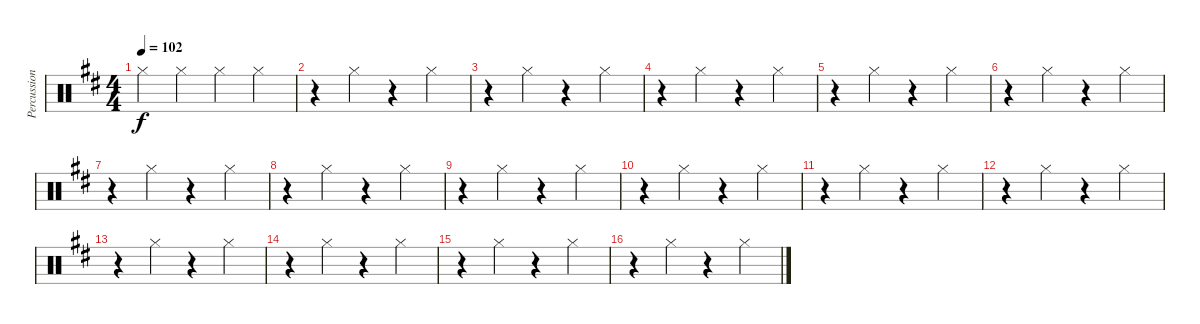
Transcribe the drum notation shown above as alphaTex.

\track ("Percussion" "Percussion") {instrument percussion}
\staff {score}
\articulation defaults
\ts (4 4)
\tempo 102
\clef neutral
\ks d "Hi-Hat (closed)".4{dy f} "Hi-Hat (closed)".4 "Hi-Hat (closed)".4 "Hi-Hat (closed)".4
|
r.4 "Hi-Hat (closed)".4 r.4 "Hi-Hat (closed)".4 |
r.4 "Hi-Hat (closed)".4 r.4 "Hi-Hat (closed)".4 |
r.4 "Hi-Hat (closed)".4 r.4 "Hi-Hat (closed)".4 |
r.4 "Hi-Hat (closed)".4 r.4 "Hi-Hat (closed)".4 |
r.4 "Hi-Hat (closed)".4 r.4 "Hi-Hat (closed)".4 |
r.4 "Hi-Hat (closed)".4 r.4 "Hi-Hat (closed)".4 |
r.4 "Hi-Hat (closed)".4 r.4 "Hi-Hat (closed)".4 |
r.4 "Hi-Hat (closed)".4 r.4 "Hi-Hat (closed)".4 |
r.4 "Hi-Hat (closed)".4 r.4 "Hi-Hat (closed)".4 |
r.4 "Hi-Hat (closed)".4 r.4 "Hi-Hat (closed)".4 |
r.4 "Hi-Hat (closed)".4 r.4 "Hi-Hat (closed)".4 |
r.4 "Hi-Hat (closed)".4 r.4 "Hi-Hat (closed)".4 |
r.4 "Hi-Hat (closed)".4 r.4 "Hi-Hat (closed)".4 |
r.4 "Hi-Hat (closed)".4 r.4 "Hi-Hat (closed)".4 |
r.4 "Hi-Hat (closed)".4 r.4 "Hi-Hat (closed)".4
